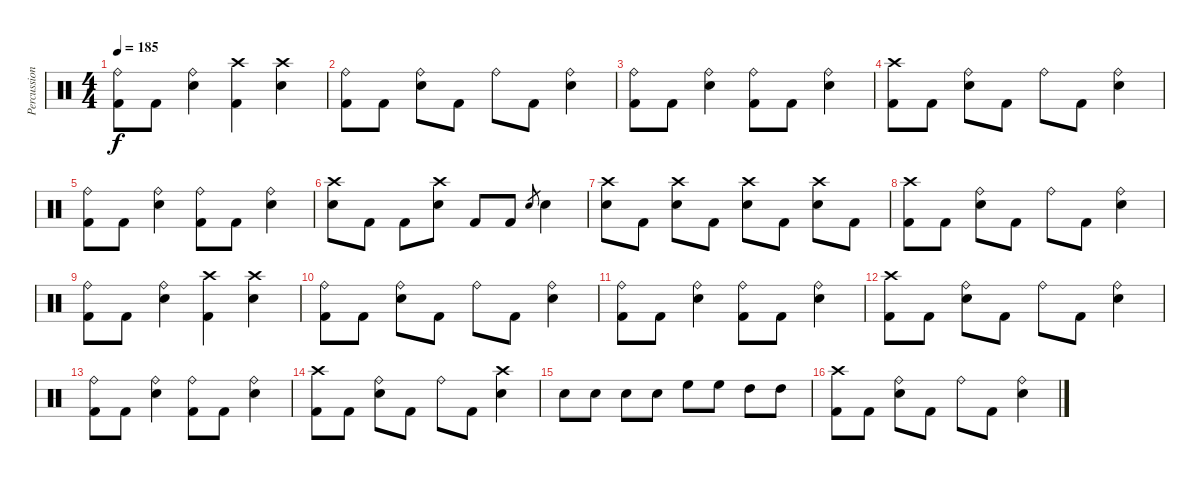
\track ("Percussion" "Percussion") {instrument percussion}
\staff {score}
\articulation defaults
\ts (4 4)
\tempo 185
\clef neutral
\ks c
("Ride (bell)" "Kick (hit) 2").8{dy f} "Kick (hit) 2".8 ("Ride (bell)" "Snare (hit) 2").4 ("Crash high (hit)" "Kick (hit) 2").4 ("Crash high (hit)" "Snare (hit) 2").4 |
("Ride (bell)" "Kick (hit) 2").8 "Kick (hit) 2".8 ("Ride (bell)" "Snare (hit) 2").8 "Kick (hit) 2".8 "Ride (bell)".8 "Kick (hit) 2".8 ("Ride (bell)" "Snare (hit) 2").4 |
("Ride (bell)" "Kick (hit) 2").8 "Kick (hit) 2".8 ("Ride (bell)" "Snare (hit) 2").4 ("Ride (bell)" "Kick (hit) 2").8 "Kick (hit) 2".8 ("Ride (bell)" "Snare (hit) 2").4 |
("Crash high (hit)" "Kick (hit) 2").8 "Kick (hit) 2".8 ("Ride (bell)" "Snare (hit) 2").8 "Kick (hit) 2".8 "Ride (bell)".8 "Kick (hit) 2".8 ("Ride (bell)" "Snare (hit) 2").4 |
("Ride (bell)" "Kick (hit) 2").8 "Kick (hit) 2".8 ("Ride (bell)" "Snare (hit) 2").4 ("Ride (bell)" "Kick (hit) 2").8 "Kick (hit) 2".8 ("Ride (bell)" "Snare (hit) 2").4 |
("Crash high (hit)" "Snare (hit) 2").8 "Kick (hit) 2".8 "Kick (hit) 2".8 ("Crash high (hit)" "Snare (hit) 2").8 "Kick (hit) 2".8 "Kick (hit) 2".8 "Snare (hit) 2".8{gr} "Snare (hit) 2".4 |
("Crash high (hit)" "Snare (hit) 2").8 "Kick (hit) 2".8 ("Crash high (hit)" "Snare (hit) 2").8 "Kick (hit) 2".8 ("Crash high (hit)" "Snare (hit) 2").8 "Kick (hit) 2".8 ("Crash high (hit)" "Snare (hit) 2").8 "Kick (hit) 2".8 |
("Crash high (hit)" "Kick (hit) 2").8 "Kick (hit) 2".8 ("Ride (bell)" "Snare (hit) 2").8 "Kick (hit) 2".8 "Ride (bell)".8 "Kick (hit) 2".8 ("Ride (bell)" "Snare (hit) 2").4 |
("Ride (bell)" "Kick (hit) 2").8 "Kick (hit) 2".8 ("Ride (bell)" "Snare (hit) 2").4 ("Crash high (hit)" "Kick (hit) 2").4 ("Crash high (hit)" "Snare (hit) 2").4 |
("Ride (bell)" "Kick (hit) 2").8 "Kick (hit) 2".8 ("Ride (bell)" "Snare (hit) 2").8 "Kick (hit) 2".8 "Ride (bell)".8 "Kick (hit) 2".8 ("Ride (bell)" "Snare (hit) 2").4 |
("Ride (bell)" "Kick (hit) 2").8 "Kick (hit) 2".8 ("Ride (bell)" "Snare (hit) 2").4 ("Ride (bell)" "Kick (hit) 2").8 "Kick (hit) 2".8 ("Ride (bell)" "Snare (hit) 2").4 |
("Crash high (hit)" "Kick (hit) 2").8 "Kick (hit) 2".8 ("Ride (bell)" "Snare (hit) 2").8 "Kick (hit) 2".8 "Ride (bell)".8 "Kick (hit) 2".8 ("Ride (bell)" "Snare (hit) 2").4 |
("Ride (bell)" "Kick (hit) 2").8 "Kick (hit) 2".8 ("Ride (bell)" "Snare (hit) 2").4 ("Ride (bell)" "Kick (hit) 2").8 "Kick (hit) 2".8 ("Ride (bell)" "Snare (hit) 2").4 |
("Crash high (hit)" "Kick (hit) 2").8 "Kick (hit) 2".8 ("Ride (bell)" "Snare (hit) 2").8 "Kick (hit) 2".8 "Ride (bell)".8 "Kick (hit) 2".8 ("Crash high (hit)" "Snare (hit) 2").4 |
"Snare (hit) 2".8 "Snare (hit) 2".8 "Snare (hit) 2".8 "Snare (hit) 2".8 "High Floor Tom (hit)".8 "High Floor Tom (hit)".8 "High Tom (hit)".8 "High Tom (hit)".8 |
("Crash high (hit)" "Kick (hit) 2").8 "Kick (hit) 2".8 ("Ride (bell)" "Snare (hit) 2").8 "Kick (hit) 2".8 "Ride (bell)".8 "Kick (hit) 2".8 ("Ride (bell)" "Snare (hit) 2").4
